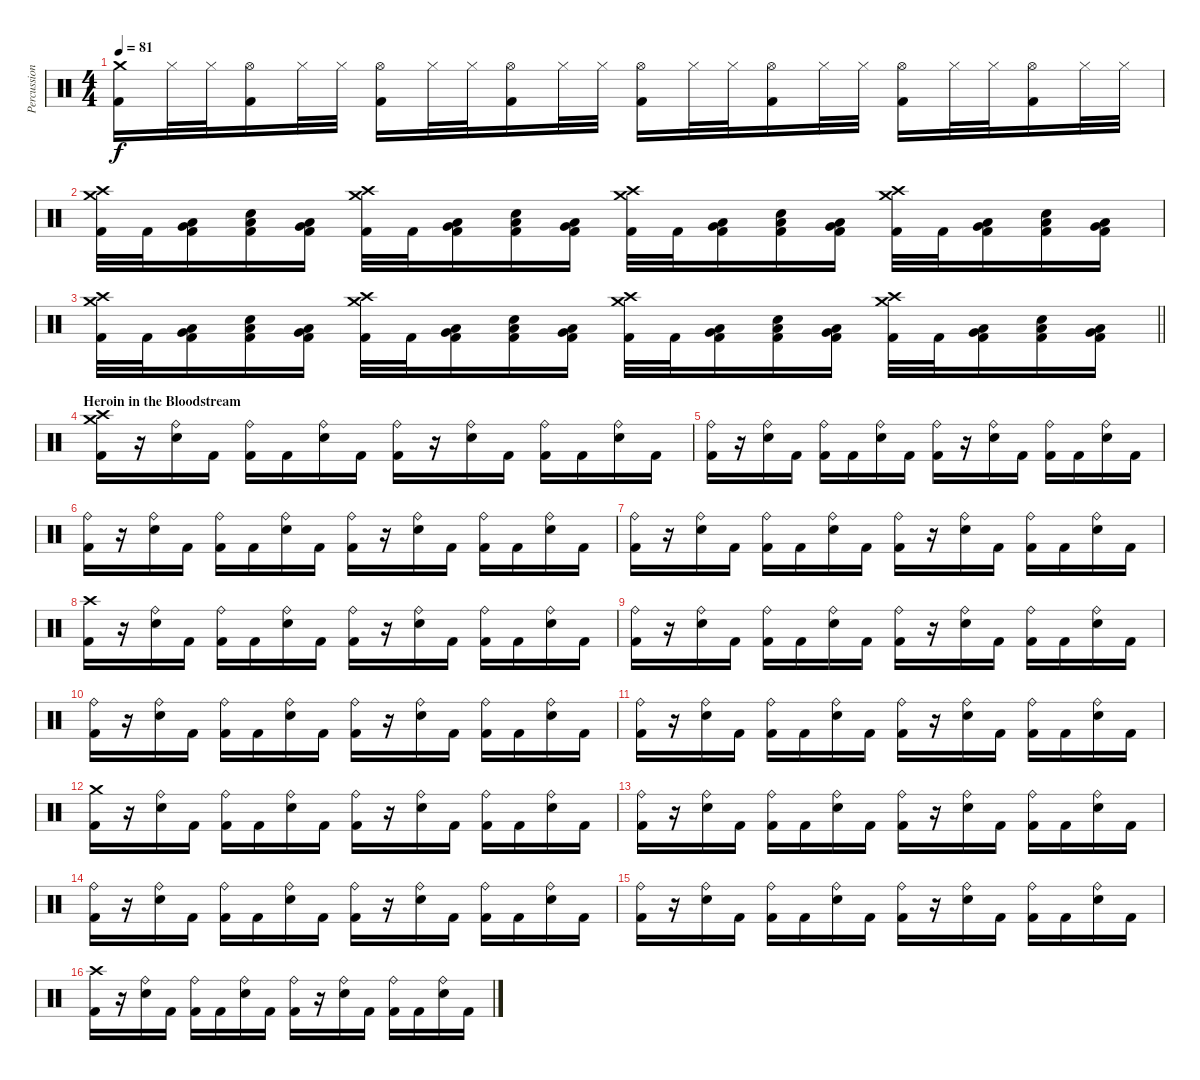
\track ("Percussion" "Percussion") {instrument percussion}
\staff {score}
\articulation defaults
\ts (4 4)
\tempo 81
\clef neutral
\ks c
("Crash medium (hit)" "Kick (hit) 2").16{dy f} "Hi-Hat (closed)".32 "Hi-Hat (closed)".32 ("Hi-Hat (open)" "Kick (hit) 2").16 "Hi-Hat (closed)".32 "Hi-Hat (closed)".32 ("Hi-Hat (open)" "Kick (hit) 2").16 "Hi-Hat (closed)".32 "Hi-Hat (closed)".32 ("Hi-Hat (open)" "Kick (hit) 2").16 "Hi-Hat (closed)".32 "Hi-Hat (closed)".32 ("Hi-Hat (open)" "Kick (hit) 2").16 "Hi-Hat (closed)".32 "Hi-Hat (closed)".32 ("Hi-Hat (open)" "Kick (hit) 2").16 "Hi-Hat (closed)".32 "Hi-Hat (closed)".32 ("Hi-Hat (open)" "Kick (hit) 2").16 "Hi-Hat (closed)".32 "Hi-Hat (closed)".32 ("Hi-Hat (open)" "Kick (hit) 2").16 "Hi-Hat (closed)".32 "Hi-Hat (closed)".32 |
("Crash high (hit)" "Crash medium (hit)" "Kick (hit) 2").32 "Kick (hit) 2".32 ("Very Low Tom (hit)" "Low Floor Tom (hit)" "Kick (hit) 2").16 ("Low Floor Tom (hit)" "Electric Snare (hit)" "Kick (hit) 2").16 ("Very Low Tom (hit)" "Low Floor Tom (hit)" "Kick (hit) 2").16 ("Crash high (hit)" "Crash medium (hit)" "Kick (hit) 2").32 "Kick (hit) 2".32 ("Very Low Tom (hit)" "Low Floor Tom (hit)" "Kick (hit) 2").16 ("Low Floor Tom (hit)" "Electric Snare (hit)" "Kick (hit) 2").16 ("Very Low Tom (hit)" "Low Floor Tom (hit)" "Kick (hit) 2").16 ("Crash high (hit)" "Crash medium (hit)" "Kick (hit) 2").32 "Kick (hit) 2".32 ("Very Low Tom (hit)" "Low Floor Tom (hit)" "Kick (hit) 2").16 ("Low Floor Tom (hit)" "Electric Snare (hit)" "Kick (hit) 2").16 ("Very Low Tom (hit)" "Low Floor Tom (hit)" "Kick (hit) 2").16 ("Crash high (hit)" "Crash medium (hit)" "Kick (hit) 2").32 "Kick (hit) 2".32 ("Very Low Tom (hit)" "Low Floor Tom (hit)" "Kick (hit) 2").16 ("Low Floor Tom (hit)" "Electric Snare (hit)" "Kick (hit) 2").16 ("Very Low Tom (hit)" "Low Floor Tom (hit)" "Kick (hit) 2").16 |
\barLineRight lightlight
("Crash high (hit)" "Crash medium (hit)" "Kick (hit) 2").32 "Kick (hit) 2".32 ("Very Low Tom (hit)" "Low Floor Tom (hit)" "Kick (hit) 2").16 ("Low Floor Tom (hit)" "Electric Snare (hit)" "Kick (hit) 2").16 ("Very Low Tom (hit)" "Low Floor Tom (hit)" "Kick (hit) 2").16 ("Crash high (hit)" "Crash medium (hit)" "Kick (hit) 2").32 "Kick (hit) 2".32 ("Very Low Tom (hit)" "Low Floor Tom (hit)" "Kick (hit) 2").16 ("Low Floor Tom (hit)" "Electric Snare (hit)" "Kick (hit) 2").16 ("Very Low Tom (hit)" "Low Floor Tom (hit)" "Kick (hit) 2").16 ("Crash high (hit)" "Crash medium (hit)" "Kick (hit) 2").32 "Kick (hit) 2".32 ("Very Low Tom (hit)" "Low Floor Tom (hit)" "Kick (hit) 2").16 ("Low Floor Tom (hit)" "Electric Snare (hit)" "Kick (hit) 2").16 ("Very Low Tom (hit)" "Low Floor Tom (hit)" "Kick (hit) 2").16 ("Crash high (hit)" "Crash medium (hit)" "Kick (hit) 2").32 "Kick (hit) 2".32 ("Very Low Tom (hit)" "Low Floor Tom (hit)" "Kick (hit) 2").16 ("Low Floor Tom (hit)" "Electric Snare (hit)" "Kick (hit) 2").16 ("Very Low Tom (hit)" "Low Floor Tom (hit)" "Kick (hit) 2").16 |
\section ("" "Heroin in the Bloodstream")
("Crash high (hit)" "Crash medium (hit)" "Kick (hit) 2").16 r.16 ("Ride (bell)" "Electric Snare (hit)").16 "Kick (hit) 2".16 ("Ride (bell)" "Kick (hit) 2").16 "Kick (hit) 2".16 ("Ride (bell)" "Electric Snare (hit)").16 "Kick (hit) 2".16 ("Ride (bell)" "Kick (hit) 2").16 r.16 ("Ride (bell)" "Electric Snare (hit)").16 "Kick (hit) 2".16 ("Ride (bell)" "Kick (hit) 2").16 "Kick (hit) 2".16 ("Ride (bell)" "Electric Snare (hit)").16 "Kick (hit) 2".16 |
("Ride (bell)" "Kick (hit) 2").16 r.16 ("Ride (bell)" "Electric Snare (hit)").16 "Kick (hit) 2".16 ("Ride (bell)" "Kick (hit) 2").16 "Kick (hit) 2".16 ("Ride (bell)" "Electric Snare (hit)").16 "Kick (hit) 2".16 ("Ride (bell)" "Kick (hit) 2").16 r.16 ("Ride (bell)" "Electric Snare (hit)").16 "Kick (hit) 2".16 ("Ride (bell)" "Kick (hit) 2").16 "Kick (hit) 2".16 ("Ride (bell)" "Electric Snare (hit)").16 "Kick (hit) 2".16 |
("Ride (bell)" "Kick (hit) 2").16 r.16 ("Ride (bell)" "Electric Snare (hit)").16 "Kick (hit) 2".16 ("Ride (bell)" "Kick (hit) 2").16 "Kick (hit) 2".16 ("Ride (bell)" "Electric Snare (hit)").16 "Kick (hit) 2".16 ("Ride (bell)" "Kick (hit) 2").16 r.16 ("Ride (bell)" "Electric Snare (hit)").16 "Kick (hit) 2".16 ("Ride (bell)" "Kick (hit) 2").16 "Kick (hit) 2".16 ("Ride (bell)" "Electric Snare (hit)").16 "Kick (hit) 2".16 |
("Ride (bell)" "Kick (hit) 2").16 r.16 ("Ride (bell)" "Electric Snare (hit)").16 "Kick (hit) 2".16 ("Ride (bell)" "Kick (hit) 2").16 "Kick (hit) 2".16 ("Ride (bell)" "Electric Snare (hit)").16 "Kick (hit) 2".16 ("Ride (bell)" "Kick (hit) 2").16 r.16 ("Ride (bell)" "Electric Snare (hit)").16 "Kick (hit) 2".16 ("Ride (bell)" "Kick (hit) 2").16 "Kick (hit) 2".16 ("Ride (bell)" "Electric Snare (hit)").16 "Kick (hit) 2".16 |
("Crash high (hit)" "Kick (hit) 2").16 r.16 ("Ride (bell)" "Electric Snare (hit)").16 "Kick (hit) 2".16 ("Ride (bell)" "Kick (hit) 2").16 "Kick (hit) 2".16 ("Ride (bell)" "Electric Snare (hit)").16 "Kick (hit) 2".16 ("Ride (bell)" "Kick (hit) 2").16 r.16 ("Ride (bell)" "Electric Snare (hit)").16 "Kick (hit) 2".16 ("Ride (bell)" "Kick (hit) 2").16 "Kick (hit) 2".16 ("Ride (bell)" "Electric Snare (hit)").16 "Kick (hit) 2".16 |
("Ride (bell)" "Kick (hit) 2").16 r.16 ("Ride (bell)" "Electric Snare (hit)").16 "Kick (hit) 2".16 ("Ride (bell)" "Kick (hit) 2").16 "Kick (hit) 2".16 ("Ride (bell)" "Electric Snare (hit)").16 "Kick (hit) 2".16 ("Ride (bell)" "Kick (hit) 2").16 r.16 ("Ride (bell)" "Electric Snare (hit)").16 "Kick (hit) 2".16 ("Ride (bell)" "Kick (hit) 2").16 "Kick (hit) 2".16 ("Ride (bell)" "Electric Snare (hit)").16 "Kick (hit) 2".16 |
("Ride (bell)" "Kick (hit) 2").16 r.16 ("Ride (bell)" "Electric Snare (hit)").16 "Kick (hit) 2".16 ("Ride (bell)" "Kick (hit) 2").16 "Kick (hit) 2".16 ("Ride (bell)" "Electric Snare (hit)").16 "Kick (hit) 2".16 ("Ride (bell)" "Kick (hit) 2").16 r.16 ("Ride (bell)" "Electric Snare (hit)").16 "Kick (hit) 2".16 ("Ride (bell)" "Kick (hit) 2").16 "Kick (hit) 2".16 ("Ride (bell)" "Electric Snare (hit)").16 "Kick (hit) 2".16 |
("Ride (bell)" "Kick (hit) 2").16 r.16 ("Ride (bell)" "Electric Snare (hit)").16 "Kick (hit) 2".16 ("Ride (bell)" "Kick (hit) 2").16 "Kick (hit) 2".16 ("Ride (bell)" "Electric Snare (hit)").16 "Kick (hit) 2".16 ("Ride (bell)" "Kick (hit) 2").16 r.16 ("Ride (bell)" "Electric Snare (hit)").16 "Kick (hit) 2".16 ("Ride (bell)" "Kick (hit) 2").16 "Kick (hit) 2".16 ("Ride (bell)" "Electric Snare (hit)").16 "Kick (hit) 2".16 |
("Crash medium (hit)" "Kick (hit) 2").16 r.16 ("Ride (bell)" "Electric Snare (hit)").16 "Kick (hit) 2".16 ("Ride (bell)" "Kick (hit) 2").16 "Kick (hit) 2".16 ("Ride (bell)" "Electric Snare (hit)").16 "Kick (hit) 2".16 ("Ride (bell)" "Kick (hit) 2").16 r.16 ("Ride (bell)" "Electric Snare (hit)").16 "Kick (hit) 2".16 ("Ride (bell)" "Kick (hit) 2").16 "Kick (hit) 2".16 ("Ride (bell)" "Electric Snare (hit)").16 "Kick (hit) 2".16 |
("Ride (bell)" "Kick (hit) 2").16 r.16 ("Ride (bell)" "Electric Snare (hit)").16 "Kick (hit) 2".16 ("Ride (bell)" "Kick (hit) 2").16 "Kick (hit) 2".16 ("Ride (bell)" "Electric Snare (hit)").16 "Kick (hit) 2".16 ("Ride (bell)" "Kick (hit) 2").16 r.16 ("Ride (bell)" "Electric Snare (hit)").16 "Kick (hit) 2".16 ("Ride (bell)" "Kick (hit) 2").16 "Kick (hit) 2".16 ("Ride (bell)" "Electric Snare (hit)").16 "Kick (hit) 2".16 |
("Ride (bell)" "Kick (hit) 2").16 r.16 ("Ride (bell)" "Electric Snare (hit)").16 "Kick (hit) 2".16 ("Ride (bell)" "Kick (hit) 2").16 "Kick (hit) 2".16 ("Ride (bell)" "Electric Snare (hit)").16 "Kick (hit) 2".16 ("Ride (bell)" "Kick (hit) 2").16 r.16 ("Ride (bell)" "Electric Snare (hit)").16 "Kick (hit) 2".16 ("Ride (bell)" "Kick (hit) 2").16 "Kick (hit) 2".16 ("Ride (bell)" "Electric Snare (hit)").16 "Kick (hit) 2".16 |
("Ride (bell)" "Kick (hit) 2").16 r.16 ("Ride (bell)" "Electric Snare (hit)").16 "Kick (hit) 2".16 ("Ride (bell)" "Kick (hit) 2").16 "Kick (hit) 2".16 ("Ride (bell)" "Electric Snare (hit)").16 "Kick (hit) 2".16 ("Ride (bell)" "Kick (hit) 2").16 r.16 ("Ride (bell)" "Electric Snare (hit)").16 "Kick (hit) 2".16 ("Ride (bell)" "Kick (hit) 2").16 "Kick (hit) 2".16 ("Ride (bell)" "Electric Snare (hit)").16 "Kick (hit) 2".16 |
("Crash high (hit)" "Kick (hit) 2").16 r.16 ("Ride (bell)" "Electric Snare (hit)").16 "Kick (hit) 2".16 ("Ride (bell)" "Kick (hit) 2").16 "Kick (hit) 2".16 ("Ride (bell)" "Electric Snare (hit)").16 "Kick (hit) 2".16 ("Ride (bell)" "Kick (hit) 2").16 r.16 ("Ride (bell)" "Electric Snare (hit)").16 "Kick (hit) 2".16 ("Ride (bell)" "Kick (hit) 2").16 "Kick (hit) 2".16 ("Ride (bell)" "Electric Snare (hit)").16 "Kick (hit) 2".16
